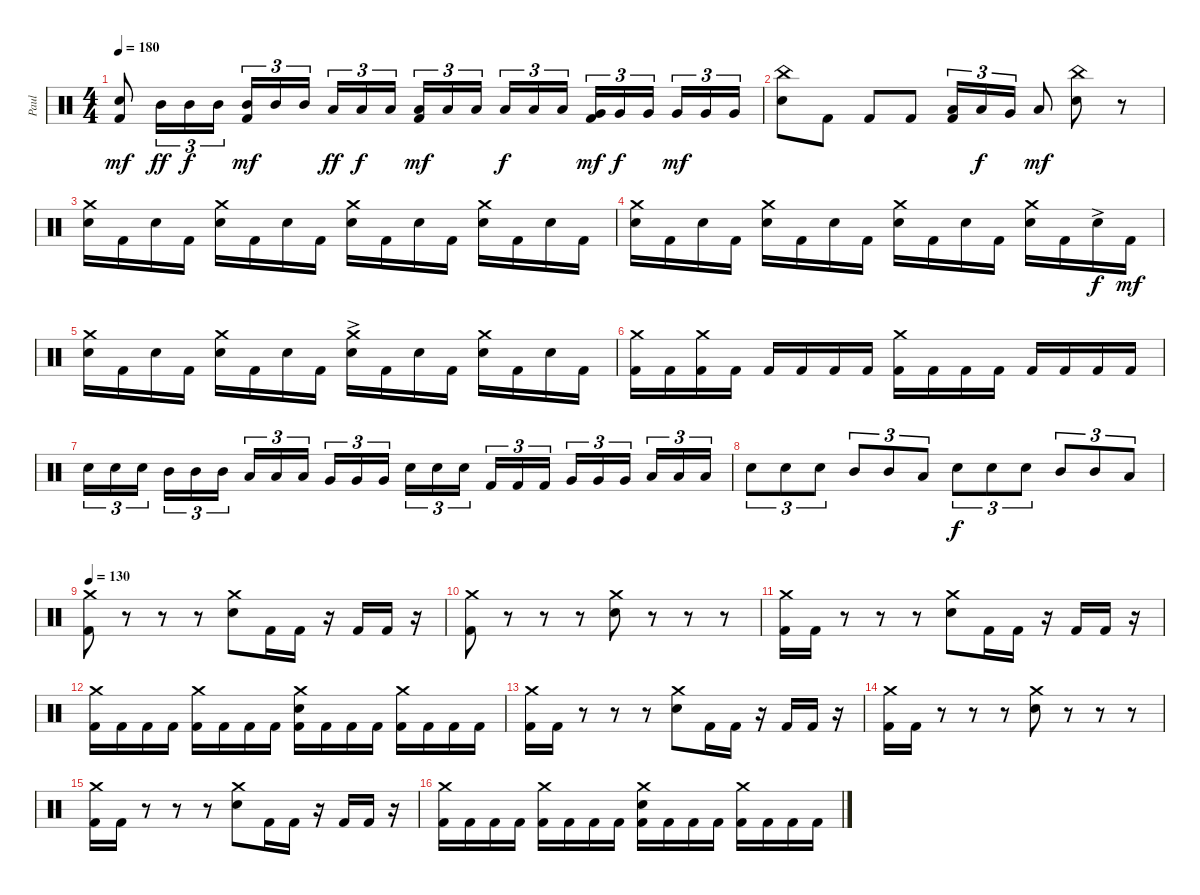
\track ("Paul " "Paul ") {instrument percussion}
\staff {score}
\articulation defaults
\ts (4 4)
\tempo 180
\clef neutral
\ks c
("Electric Snare (hit)" "Kick (hit) 2").8{dy mf} "Mid Tom (hit)".16{tu (3 2) dy ff} "Mid Tom (hit)".16{tu (3 2) dy f} "Mid Tom (hit)".16{tu (3 2)} ("Mid Tom (hit)" "Kick (hit) 2").16{tu (3 2) dy mf} "Mid Tom (hit)".16{tu (3 2)} "Mid Tom (hit)".16{tu (3 2) beam splitsecondary} "Low Tom (hit)".16{tu (3 2) dy ff} "Low Tom (hit)".16{tu (3 2) dy f} "Low Tom (hit)".16{tu (3 2)} ("Low Tom (hit)" "Kick (hit) 2").16{tu (3 2) dy mf} "Low Tom (hit)".16{tu (3 2)} "Low Tom (hit)".16{tu (3 2) beam splitsecondary} "Low Tom (hit)".16{tu (3 2) dy f} "Low Tom (hit)".16{tu (3 2)} "Low Tom (hit)".16{tu (3 2)} ("Very Low Tom (hit)" "Kick (hit) 2").16{tu (3 2) dy mf} "Very Low Tom (hit)".16{tu (3 2) dy f} "Very Low Tom (hit)".16{tu (3 2) beam splitsecondary} "Very Low Tom (hit)".16{tu (3 2) dy mf} "Very Low Tom (hit)".16{tu (3 2)} "Very Low Tom (hit)".16{tu (3 2)} |
("Electric Snare (hit)" "China (hit)").8 "Kick (hit) 2".8 "Kick (hit) 2".8 "Kick (hit) 2".8 ("Low Tom (hit)" "Kick (hit) 2").16{tu (3 2)} "Low Tom (hit)".16{tu (3 2) dy f} "Very Low Tom (hit)".16{tu (3 2)} "Low Floor Tom (hit)".8{dy mf} ("China (hit)" "Electric Snare (hit)").8 r.8 |
("Electric Snare (hit)" "Crash medium (hit)").16 "Kick (hit) 2".16 "Electric Snare (hit)".16 "Kick (hit) 2".16 ("Electric Snare (hit)" "Crash medium (hit)").16 "Kick (hit) 2".16 "Electric Snare (hit)".16 "Kick (hit) 2".16 ("Electric Snare (hit)" "Crash medium (hit)").16 "Kick (hit) 2".16 "Electric Snare (hit)".16 "Kick (hit) 2".16 ("Electric Snare (hit)" "Crash medium (hit)").16 "Kick (hit) 2".16 "Electric Snare (hit)".16 "Kick (hit) 2".16 |
("Electric Snare (hit)" "Crash medium (hit)").16 "Kick (hit) 2".16 "Electric Snare (hit)".16 "Kick (hit) 2".16 ("Electric Snare (hit)" "Crash medium (hit)").16 "Kick (hit) 2".16 "Electric Snare (hit)".16 "Kick (hit) 2".16 ("Electric Snare (hit)" "Crash medium (hit)").16 "Kick (hit) 2".16 "Electric Snare (hit)".16 "Kick (hit) 2".16 ("Electric Snare (hit)" "Crash medium (hit)").16 "Kick (hit) 2".16 "Electric Snare (hit)"{ac}.16{dy f} "Kick (hit) 2".16{dy mf} |
("Electric Snare (hit)" "Crash medium (hit)").16 "Kick (hit) 2".16 "Electric Snare (hit)".16 "Kick (hit) 2".16 ("Electric Snare (hit)" "Crash medium (hit)").16 "Kick (hit) 2".16 "Electric Snare (hit)".16 "Kick (hit) 2".16 ("Electric Snare (hit)"{ac} "Crash medium (hit)").16 "Kick (hit) 2".16 "Electric Snare (hit)".16 "Kick (hit) 2".16 ("Electric Snare (hit)" "Crash medium (hit)").16 "Kick (hit) 2".16 "Electric Snare (hit)".16 "Kick (hit) 2".16 |
("Kick (hit) 2" "Crash medium (hit)").16 "Kick (hit) 2".16 ("Kick (hit) 2" "Crash medium (hit)").16 "Kick (hit) 2".16 "Kick (hit) 2".16 "Kick (hit) 2".16 "Kick (hit) 2".16 "Kick (hit) 2".16 ("Kick (hit) 2" "Crash medium (hit)").16 "Kick (hit) 2".16 "Kick (hit) 2".16 "Kick (hit) 2".16 "Kick (hit) 2".16 "Kick (hit) 2".16 "Kick (hit) 2".16 "Kick (hit) 2".16 |
"Electric Snare (hit)".16{tu (3 2)} "Electric Snare (hit)".16{tu (3 2)} "Electric Snare (hit)".16{tu (3 2) beam splitsecondary} "Mid Tom (hit)".16{tu (3 2)} "Mid Tom (hit)".16{tu (3 2)} "Mid Tom (hit)".16{tu (3 2)} "Low Tom (hit)".16{tu (3 2)} "Low Tom (hit)".16{tu (3 2)} "Low Tom (hit)".16{tu (3 2) beam splitsecondary} "Very Low Tom (hit)".16{tu (3 2)} "Very Low Tom (hit)".16{tu (3 2)} "Very Low Tom (hit)".16{tu (3 2)} "Electric Snare (hit)".16{tu (3 2)} "Electric Snare (hit)".16{tu (3 2)} "Electric Snare (hit)".16{tu (3 2) beam splitsecondary} "Kick (hit) 2".16{tu (3 2)} "Kick (hit) 2".16{tu (3 2)} "Kick (hit) 2".16{tu (3 2)} "Very Low Tom (hit)".16{tu (3 2)} "Very Low Tom (hit)".16{tu (3 2)} "Very Low Tom (hit)".16{tu (3 2) beam splitsecondary} "Low Floor Tom (hit)".16{tu (3 2)} "Low Floor Tom (hit)".16{tu (3 2)} "Low Floor Tom (hit)".16{tu (3 2)} |
"Electric Snare (hit)".8{tu (3 2)} "Electric Snare (hit)".8{tu (3 2)} "Electric Snare (hit)".8{tu (3 2)} "Mid Tom (hit)".8{tu (3 2)} "Mid Tom (hit)".8{tu (3 2)} "Low Tom (hit)".8{tu (3 2)} "Electric Snare (hit)".8{tu (3 2) dy f} "Electric Snare (hit)".8{tu (3 2)} "Electric Snare (hit)".8{tu (3 2)} "Mid Tom (hit)".8{tu (3 2)} "Mid Tom (hit)".8{tu (3 2)} "Low Tom (hit)".8{tu (3 2)} |
\tempo 130
("Crash medium (hit)" "Kick (hit) 2").8 r.8 r.8 r.8 ("Electric Snare (hit)" "Crash medium (hit)").8 "Kick (hit) 2".16 "Kick (hit) 2".16 r.16 "Kick (hit) 2".16 "Kick (hit) 2".16 r.16 |
("Kick (hit) 2" "Crash medium (hit)").8 r.8 r.8 r.8 ("Electric Snare (hit)" "Crash medium (hit)").8 r.8 r.8 r.8 |
("Kick (hit) 2" "Crash medium (hit)").16 "Kick (hit) 2".16 r.8 r.8 r.8 ("Electric Snare (hit)" "Crash medium (hit)").8 "Kick (hit) 2".16 "Kick (hit) 2".16 r.16 "Kick (hit) 2".16 "Kick (hit) 2".16 r.16 |
("Kick (hit) 2" "Crash medium (hit)").16 "Kick (hit) 2".16 "Kick (hit) 2".16 "Kick (hit) 2".16 ("Kick (hit) 2" "Crash medium (hit)").16 "Kick (hit) 2".16 "Kick (hit) 2".16 "Kick (hit) 2".16 ("Kick (hit) 2" "Electric Snare (hit)" "Crash medium (hit)").16 "Kick (hit) 2".16 "Kick (hit) 2".16 "Kick (hit) 2".16 ("Kick (hit) 2" "Crash medium (hit)").16 "Kick (hit) 2".16 "Kick (hit) 2".16 "Kick (hit) 2".16 |
("Kick (hit) 2" "Crash medium (hit)").16 "Kick (hit) 2".16 r.8 r.8 r.8 ("Electric Snare (hit)" "Crash medium (hit)").8 "Kick (hit) 2".16 "Kick (hit) 2".16 r.16 "Kick (hit) 2".16 "Kick (hit) 2".16 r.16 |
("Kick (hit) 2" "Crash medium (hit)").16 "Kick (hit) 2".16 r.8 r.8 r.8 ("Electric Snare (hit)" "Crash medium (hit)").8 r.8 r.8 r.8 |
("Kick (hit) 2" "Crash medium (hit)").16 "Kick (hit) 2".16 r.8 r.8 r.8 ("Electric Snare (hit)" "Crash medium (hit)").8 "Kick (hit) 2".16 "Kick (hit) 2".16 r.16 "Kick (hit) 2".16 "Kick (hit) 2".16 r.16 |
("Kick (hit) 2" "Crash medium (hit)").16 "Kick (hit) 2".16 "Kick (hit) 2".16 "Kick (hit) 2".16 ("Kick (hit) 2" "Crash medium (hit)").16 "Kick (hit) 2".16 "Kick (hit) 2".16 "Kick (hit) 2".16 ("Kick (hit) 2" "Electric Snare (hit)" "Crash medium (hit)").16 "Kick (hit) 2".16 "Kick (hit) 2".16 "Kick (hit) 2".16 ("Kick (hit) 2" "Crash medium (hit)").16 "Kick (hit) 2".16 "Kick (hit) 2".16 "Kick (hit) 2".16
